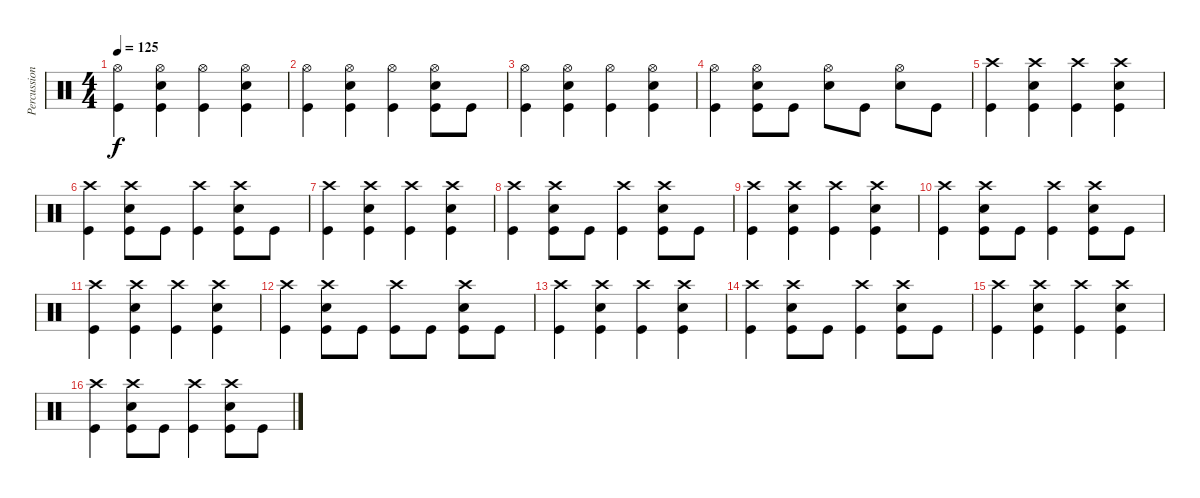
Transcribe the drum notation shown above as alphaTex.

\track ("Percussion" "Percussion") {instrument percussion}
\staff {score}
\articulation defaults
\ts (4 4)
\tempo 125
\clef neutral
\ks c
("Hi-Hat (open)" "Kick (hit)").4{dy f} ("Hi-Hat (open)" "Electric Snare (hit)" "Kick (hit)").4 ("Hi-Hat (open)" "Kick (hit)").4 ("Hi-Hat (open)" "Electric Snare (hit)" "Kick (hit)").4 |
("Hi-Hat (open)" "Kick (hit)").4 ("Hi-Hat (open)" "Electric Snare (hit)" "Kick (hit)").4 ("Hi-Hat (open)" "Kick (hit)").4 ("Hi-Hat (open)" "Electric Snare (hit)" "Kick (hit)").8 "Kick (hit)".8 |
("Hi-Hat (open)" "Kick (hit)").4 ("Hi-Hat (open)" "Electric Snare (hit)" "Kick (hit)").4 ("Hi-Hat (open)" "Kick (hit)").4 ("Hi-Hat (open)" "Electric Snare (hit)" "Kick (hit)").4 |
("Hi-Hat (open)" "Kick (hit)").4 ("Hi-Hat (open)" "Electric Snare (hit)" "Kick (hit)").8 "Kick (hit)".8 ("Hi-Hat (open)" "Electric Snare (hit)").8 "Kick (hit)".8 ("Hi-Hat (open)" "Electric Snare (hit)").8 "Kick (hit)".8 |
("Crash high (hit)" "Kick (hit)").4 ("Crash high (hit)" "Electric Snare (hit)" "Kick (hit)").4 ("Crash high (hit)" "Kick (hit)").4 ("Crash high (hit)" "Electric Snare (hit)" "Kick (hit)").4 |
("Crash high (hit)" "Kick (hit)").4 ("Crash high (hit)" "Electric Snare (hit)" "Kick (hit)").8 "Kick (hit)".8 ("Crash high (hit)" "Kick (hit)").4 ("Crash high (hit)" "Electric Snare (hit)" "Kick (hit)").8 "Kick (hit)".8 |
("Crash high (hit)" "Kick (hit)").4 ("Crash high (hit)" "Electric Snare (hit)" "Kick (hit)").4 ("Crash high (hit)" "Kick (hit)").4 ("Crash high (hit)" "Electric Snare (hit)" "Kick (hit)").4 |
("Crash high (hit)" "Kick (hit)").4 ("Crash high (hit)" "Electric Snare (hit)" "Kick (hit)").8 "Kick (hit)".8 ("Crash high (hit)" "Kick (hit)").4 ("Crash high (hit)" "Electric Snare (hit)" "Kick (hit)").8 "Kick (hit)".8 |
("Crash high (hit)" "Kick (hit)").4 ("Crash high (hit)" "Electric Snare (hit)" "Kick (hit)").4 ("Crash high (hit)" "Kick (hit)").4 ("Crash high (hit)" "Electric Snare (hit)" "Kick (hit)").4 |
("Crash high (hit)" "Kick (hit)").4 ("Crash high (hit)" "Electric Snare (hit)" "Kick (hit)").8 "Kick (hit)".8 ("Crash high (hit)" "Kick (hit)").4 ("Crash high (hit)" "Electric Snare (hit)" "Kick (hit)").8 "Kick (hit)".8 |
("Crash high (hit)" "Kick (hit)").4 ("Crash high (hit)" "Electric Snare (hit)" "Kick (hit)").4 ("Crash high (hit)" "Kick (hit)").4 ("Crash high (hit)" "Electric Snare (hit)" "Kick (hit)").4 |
("Crash high (hit)" "Kick (hit)").4 ("Crash high (hit)" "Electric Snare (hit)" "Kick (hit)").8 "Kick (hit)".8 ("Crash high (hit)" "Kick (hit)").8 "Kick (hit)".8 ("Crash high (hit)" "Electric Snare (hit)" "Kick (hit)").8 "Kick (hit)".8 |
("Crash high (hit)" "Kick (hit)").4 ("Crash high (hit)" "Electric Snare (hit)" "Kick (hit)").4 ("Crash high (hit)" "Kick (hit)").4 ("Crash high (hit)" "Electric Snare (hit)" "Kick (hit)").4 |
("Crash high (hit)" "Kick (hit)").4 ("Crash high (hit)" "Electric Snare (hit)" "Kick (hit)").8 "Kick (hit)".8 ("Crash high (hit)" "Kick (hit)").4 ("Crash high (hit)" "Electric Snare (hit)" "Kick (hit)").8 "Kick (hit)".8 |
("Crash high (hit)" "Kick (hit)").4 ("Crash high (hit)" "Electric Snare (hit)" "Kick (hit)").4 ("Crash high (hit)" "Kick (hit)").4 ("Crash high (hit)" "Electric Snare (hit)" "Kick (hit)").4 |
("Crash high (hit)" "Kick (hit)").4 ("Crash high (hit)" "Electric Snare (hit)" "Kick (hit)").8 "Kick (hit)".8 ("Crash high (hit)" "Kick (hit)").4 ("Crash high (hit)" "Electric Snare (hit)" "Kick (hit)").8 "Kick (hit)".8
